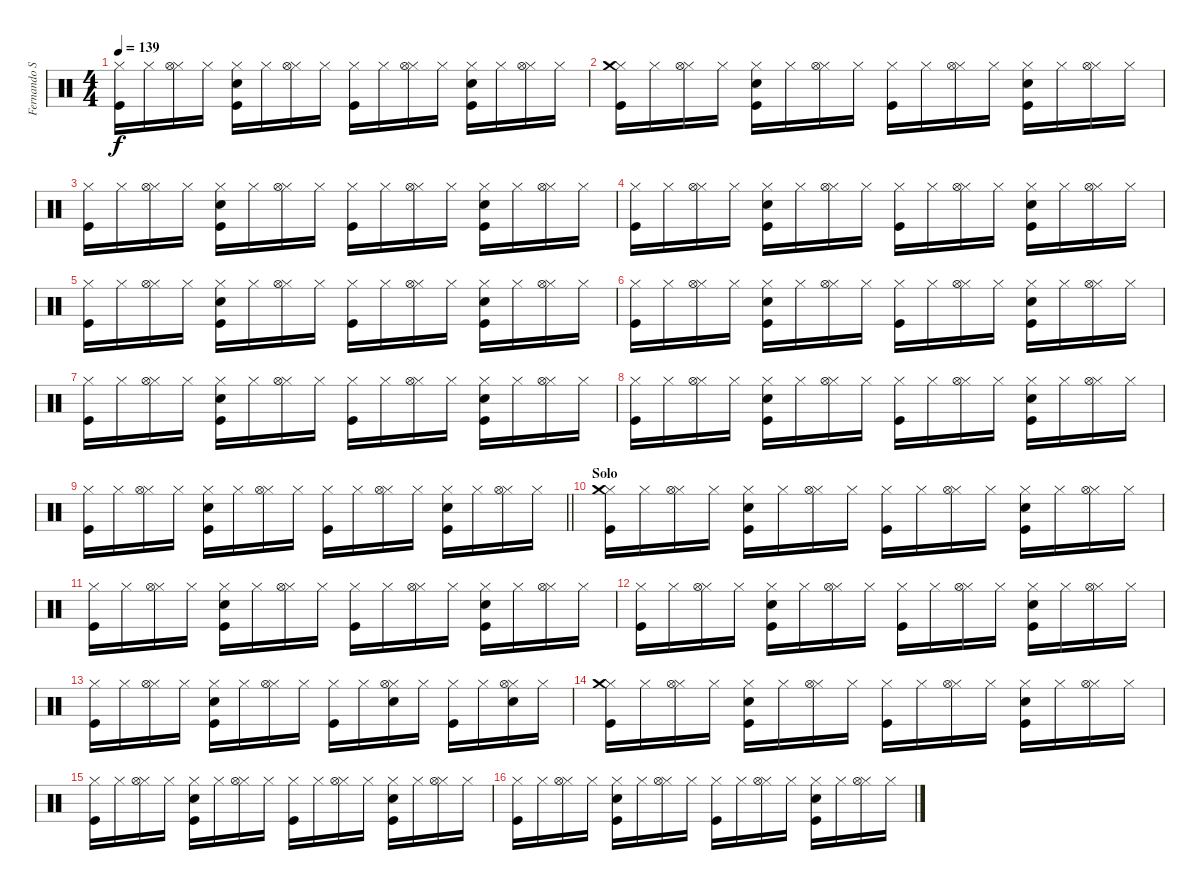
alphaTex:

\track ("Fernando Samalea (Bateria)" "Fernando S") {instrument percussion}
\staff {score}
\articulation defaults
\ts (4 4)
\tempo 139
\clef neutral
\ks c
("Kick (hit)" "Hi-Hat (closed)").16{dy f} "Hi-Hat (closed)".16 ("Hi-Hat (closed)" "Hi-Hat (open)").16 "Hi-Hat (closed)".16 ("Kick (hit)" "Snare (hit) 2" "Hi-Hat (closed)").16 "Hi-Hat (closed)".16 ("Hi-Hat (closed)" "Hi-Hat (open)").16 "Hi-Hat (closed)".16 ("Kick (hit)" "Hi-Hat (closed)").16 "Hi-Hat (closed)".16 ("Hi-Hat (closed)" "Hi-Hat (open)").16 "Hi-Hat (closed)".16 ("Kick (hit)" "Snare (hit) 2" "Hi-Hat (closed)").16 "Hi-Hat (closed)".16 ("Hi-Hat (closed)" "Hi-Hat (open)").16 "Hi-Hat (closed)".16 |
("Kick (hit)" "Hi-Hat (closed)" "Crash medium (hit)").16 "Hi-Hat (closed)".16 ("Hi-Hat (closed)" "Hi-Hat (open)").16 "Hi-Hat (closed)".16 ("Kick (hit)" "Snare (hit) 2" "Hi-Hat (closed)").16 "Hi-Hat (closed)".16 ("Hi-Hat (closed)" "Hi-Hat (open)").16 "Hi-Hat (closed)".16 ("Kick (hit)" "Hi-Hat (closed)").16 "Hi-Hat (closed)".16 ("Hi-Hat (closed)" "Hi-Hat (open)").16 "Hi-Hat (closed)".16 ("Kick (hit)" "Snare (hit) 2" "Hi-Hat (closed)").16 "Hi-Hat (closed)".16 ("Hi-Hat (closed)" "Hi-Hat (open)").16 "Hi-Hat (closed)".16 |
("Kick (hit)" "Hi-Hat (closed)").16 "Hi-Hat (closed)".16 ("Hi-Hat (closed)" "Hi-Hat (open)").16 "Hi-Hat (closed)".16 ("Kick (hit)" "Snare (hit) 2" "Hi-Hat (closed)").16 "Hi-Hat (closed)".16 ("Hi-Hat (closed)" "Hi-Hat (open)").16 "Hi-Hat (closed)".16 ("Kick (hit)" "Hi-Hat (closed)").16 "Hi-Hat (closed)".16 ("Hi-Hat (closed)" "Hi-Hat (open)").16 "Hi-Hat (closed)".16 ("Kick (hit)" "Snare (hit) 2" "Hi-Hat (closed)").16 "Hi-Hat (closed)".16 ("Hi-Hat (closed)" "Hi-Hat (open)").16 "Hi-Hat (closed)".16 |
("Kick (hit)" "Hi-Hat (closed)").16 "Hi-Hat (closed)".16 ("Hi-Hat (closed)" "Hi-Hat (open)").16 "Hi-Hat (closed)".16 ("Kick (hit)" "Snare (hit) 2" "Hi-Hat (closed)").16 "Hi-Hat (closed)".16 ("Hi-Hat (closed)" "Hi-Hat (open)").16 "Hi-Hat (closed)".16 ("Kick (hit)" "Hi-Hat (closed)").16 "Hi-Hat (closed)".16 ("Hi-Hat (closed)" "Hi-Hat (open)").16 "Hi-Hat (closed)".16 ("Kick (hit)" "Snare (hit) 2" "Hi-Hat (closed)").16 "Hi-Hat (closed)".16 ("Hi-Hat (closed)" "Hi-Hat (open)").16 "Hi-Hat (closed)".16 |
("Kick (hit)" "Hi-Hat (closed)").16 "Hi-Hat (closed)".16 ("Hi-Hat (closed)" "Hi-Hat (open)").16 "Hi-Hat (closed)".16 ("Kick (hit)" "Snare (hit) 2" "Hi-Hat (closed)").16 "Hi-Hat (closed)".16 ("Hi-Hat (closed)" "Hi-Hat (open)").16 "Hi-Hat (closed)".16 ("Kick (hit)" "Hi-Hat (closed)").16 "Hi-Hat (closed)".16 ("Hi-Hat (closed)" "Hi-Hat (open)").16 "Hi-Hat (closed)".16 ("Kick (hit)" "Snare (hit) 2" "Hi-Hat (closed)").16 "Hi-Hat (closed)".16 ("Hi-Hat (closed)" "Hi-Hat (open)").16 "Hi-Hat (closed)".16 |
("Kick (hit)" "Hi-Hat (closed)").16 "Hi-Hat (closed)".16 ("Hi-Hat (closed)" "Hi-Hat (open)").16 "Hi-Hat (closed)".16 ("Kick (hit)" "Snare (hit) 2" "Hi-Hat (closed)").16 "Hi-Hat (closed)".16 ("Hi-Hat (closed)" "Hi-Hat (open)").16 "Hi-Hat (closed)".16 ("Kick (hit)" "Hi-Hat (closed)").16 "Hi-Hat (closed)".16 ("Hi-Hat (closed)" "Hi-Hat (open)").16 "Hi-Hat (closed)".16 ("Kick (hit)" "Snare (hit) 2" "Hi-Hat (closed)").16 "Hi-Hat (closed)".16 ("Hi-Hat (closed)" "Hi-Hat (open)").16 "Hi-Hat (closed)".16 |
("Kick (hit)" "Hi-Hat (closed)").16 "Hi-Hat (closed)".16 ("Hi-Hat (closed)" "Hi-Hat (open)").16 "Hi-Hat (closed)".16 ("Kick (hit)" "Snare (hit) 2" "Hi-Hat (closed)").16 "Hi-Hat (closed)".16 ("Hi-Hat (closed)" "Hi-Hat (open)").16 "Hi-Hat (closed)".16 ("Kick (hit)" "Hi-Hat (closed)").16 "Hi-Hat (closed)".16 ("Hi-Hat (closed)" "Hi-Hat (open)").16 "Hi-Hat (closed)".16 ("Kick (hit)" "Snare (hit) 2" "Hi-Hat (closed)").16 "Hi-Hat (closed)".16 ("Hi-Hat (closed)" "Hi-Hat (open)").16 "Hi-Hat (closed)".16 |
("Kick (hit)" "Hi-Hat (closed)").16 "Hi-Hat (closed)".16 ("Hi-Hat (closed)" "Hi-Hat (open)").16 "Hi-Hat (closed)".16 ("Kick (hit)" "Snare (hit) 2" "Hi-Hat (closed)").16 "Hi-Hat (closed)".16 ("Hi-Hat (closed)" "Hi-Hat (open)").16 "Hi-Hat (closed)".16 ("Kick (hit)" "Hi-Hat (closed)").16 "Hi-Hat (closed)".16 ("Hi-Hat (closed)" "Hi-Hat (open)").16 "Hi-Hat (closed)".16 ("Kick (hit)" "Snare (hit) 2" "Hi-Hat (closed)").16 "Hi-Hat (closed)".16 ("Hi-Hat (closed)" "Hi-Hat (open)").16 "Hi-Hat (closed)".16 |
\barLineRight lightlight
("Kick (hit)" "Hi-Hat (closed)").16 "Hi-Hat (closed)".16 ("Hi-Hat (closed)" "Hi-Hat (open)").16 "Hi-Hat (closed)".16 ("Kick (hit)" "Snare (hit) 2" "Hi-Hat (closed)").16 "Hi-Hat (closed)".16 ("Hi-Hat (closed)" "Hi-Hat (open)").16 "Hi-Hat (closed)".16 ("Kick (hit)" "Hi-Hat (closed)").16 "Hi-Hat (closed)".16 ("Hi-Hat (closed)" "Hi-Hat (open)").16 "Hi-Hat (closed)".16 ("Kick (hit)" "Snare (hit) 2" "Hi-Hat (closed)").16 "Hi-Hat (closed)".16 ("Hi-Hat (closed)" "Hi-Hat (open)").16 "Hi-Hat (closed)".16 |
\section ("" "Solo")
("Kick (hit)" "Hi-Hat (closed)" "Crash medium (hit)").16 "Hi-Hat (closed)".16 ("Hi-Hat (closed)" "Hi-Hat (open)").16 "Hi-Hat (closed)".16 ("Kick (hit)" "Snare (hit) 2" "Hi-Hat (closed)").16 "Hi-Hat (closed)".16 ("Hi-Hat (closed)" "Hi-Hat (open)").16 "Hi-Hat (closed)".16 ("Kick (hit)" "Hi-Hat (closed)").16 "Hi-Hat (closed)".16 ("Hi-Hat (closed)" "Hi-Hat (open)").16 "Hi-Hat (closed)".16 ("Kick (hit)" "Snare (hit) 2" "Hi-Hat (closed)").16 "Hi-Hat (closed)".16 ("Hi-Hat (closed)" "Hi-Hat (open)").16 "Hi-Hat (closed)".16 |
("Kick (hit)" "Hi-Hat (closed)").16 "Hi-Hat (closed)".16 ("Hi-Hat (closed)" "Hi-Hat (open)").16 "Hi-Hat (closed)".16 ("Kick (hit)" "Snare (hit) 2" "Hi-Hat (closed)").16 "Hi-Hat (closed)".16 ("Hi-Hat (closed)" "Hi-Hat (open)").16 "Hi-Hat (closed)".16 ("Kick (hit)" "Hi-Hat (closed)").16 "Hi-Hat (closed)".16 ("Hi-Hat (closed)" "Hi-Hat (open)").16 "Hi-Hat (closed)".16 ("Kick (hit)" "Snare (hit) 2" "Hi-Hat (closed)").16 "Hi-Hat (closed)".16 ("Hi-Hat (closed)" "Hi-Hat (open)").16 "Hi-Hat (closed)".16 |
("Kick (hit)" "Hi-Hat (closed)").16 "Hi-Hat (closed)".16 ("Hi-Hat (closed)" "Hi-Hat (open)").16 "Hi-Hat (closed)".16 ("Kick (hit)" "Snare (hit) 2" "Hi-Hat (closed)").16 "Hi-Hat (closed)".16 ("Hi-Hat (closed)" "Hi-Hat (open)").16 "Hi-Hat (closed)".16 ("Kick (hit)" "Hi-Hat (closed)").16 "Hi-Hat (closed)".16 ("Hi-Hat (closed)" "Hi-Hat (open)").16 "Hi-Hat (closed)".16 ("Kick (hit)" "Snare (hit) 2" "Hi-Hat (closed)").16 "Hi-Hat (closed)".16 ("Hi-Hat (closed)" "Hi-Hat (open)").16 "Hi-Hat (closed)".16 |
("Kick (hit)" "Hi-Hat (closed)").16 "Hi-Hat (closed)".16 ("Hi-Hat (closed)" "Hi-Hat (open)").16 "Hi-Hat (closed)".16 ("Kick (hit)" "Snare (hit) 2" "Hi-Hat (closed)").16 "Hi-Hat (closed)".16 ("Hi-Hat (closed)" "Hi-Hat (open)").16 "Hi-Hat (closed)".16 ("Kick (hit)" "Hi-Hat (closed)").16 "Hi-Hat (closed)".16 ("Snare (hit) 2" "Hi-Hat (closed)" "Hi-Hat (open)").16 "Hi-Hat (closed)".16 ("Kick (hit)" "Hi-Hat (closed)").16 "Hi-Hat (closed)".16 ("Snare (hit) 2" "Hi-Hat (closed)" "Hi-Hat (open)").16 "Hi-Hat (closed)".16 |
("Kick (hit)" "Hi-Hat (closed)" "Crash medium (hit)").16 "Hi-Hat (closed)".16 ("Hi-Hat (closed)" "Hi-Hat (open)").16 "Hi-Hat (closed)".16 ("Kick (hit)" "Snare (hit) 2" "Hi-Hat (closed)").16 "Hi-Hat (closed)".16 ("Hi-Hat (closed)" "Hi-Hat (open)").16 "Hi-Hat (closed)".16 ("Kick (hit)" "Hi-Hat (closed)").16 "Hi-Hat (closed)".16 ("Hi-Hat (closed)" "Hi-Hat (open)").16 "Hi-Hat (closed)".16 ("Kick (hit)" "Snare (hit) 2" "Hi-Hat (closed)").16 "Hi-Hat (closed)".16 ("Hi-Hat (closed)" "Hi-Hat (open)").16 "Hi-Hat (closed)".16 |
("Kick (hit)" "Hi-Hat (closed)").16 "Hi-Hat (closed)".16 ("Hi-Hat (closed)" "Hi-Hat (open)").16 "Hi-Hat (closed)".16 ("Kick (hit)" "Snare (hit) 2" "Hi-Hat (closed)").16 "Hi-Hat (closed)".16 ("Hi-Hat (closed)" "Hi-Hat (open)").16 "Hi-Hat (closed)".16 ("Kick (hit)" "Hi-Hat (closed)").16 "Hi-Hat (closed)".16 ("Hi-Hat (closed)" "Hi-Hat (open)").16 "Hi-Hat (closed)".16 ("Kick (hit)" "Snare (hit) 2" "Hi-Hat (closed)").16 "Hi-Hat (closed)".16 ("Hi-Hat (closed)" "Hi-Hat (open)").16 "Hi-Hat (closed)".16 |
("Kick (hit)" "Hi-Hat (closed)").16 "Hi-Hat (closed)".16 ("Hi-Hat (closed)" "Hi-Hat (open)").16 "Hi-Hat (closed)".16 ("Kick (hit)" "Snare (hit) 2" "Hi-Hat (closed)").16 "Hi-Hat (closed)".16 ("Hi-Hat (closed)" "Hi-Hat (open)").16 "Hi-Hat (closed)".16 ("Kick (hit)" "Hi-Hat (closed)").16 "Hi-Hat (closed)".16 ("Hi-Hat (closed)" "Hi-Hat (open)").16 "Hi-Hat (closed)".16 ("Kick (hit)" "Snare (hit) 2" "Hi-Hat (closed)").16 "Hi-Hat (closed)".16 ("Hi-Hat (closed)" "Hi-Hat (open)").16 "Hi-Hat (closed)".16
